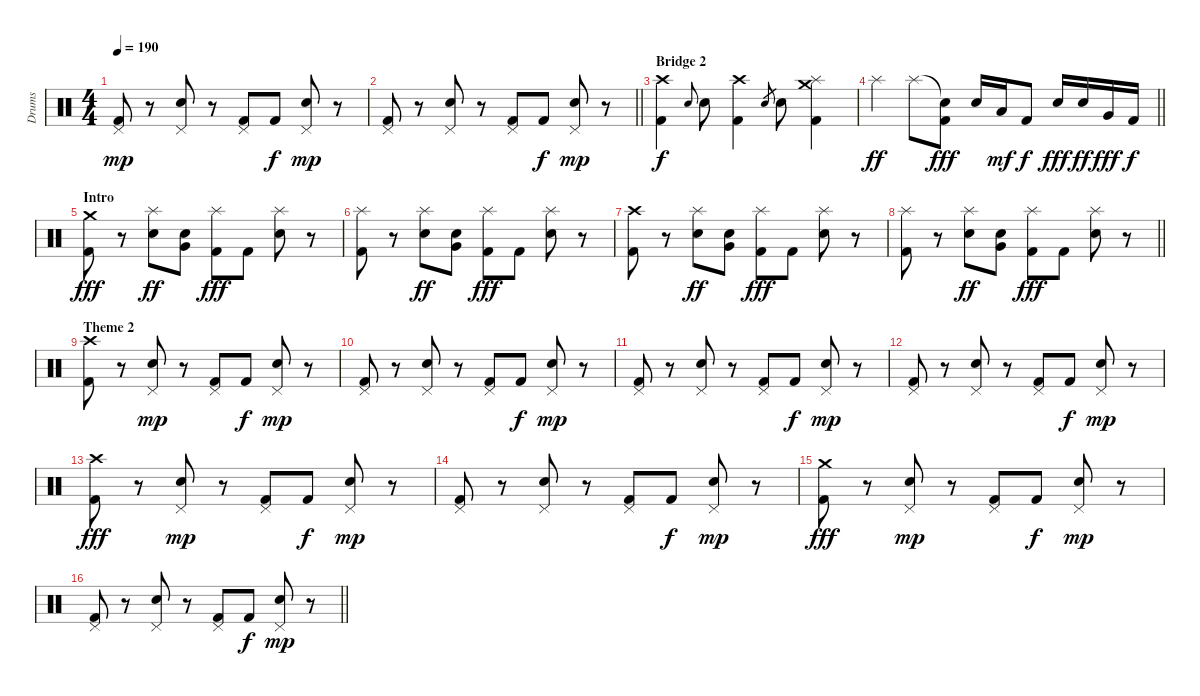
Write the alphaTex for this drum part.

\track ("Drums" "Drums") {instrument percussion}
\staff {score}
\articulation defaults
\ts (4 4)
\tempo 190
\clef neutral
\ks c
("Pedal Hi-Hat (hit)" "Kick (hit) 2").8{dy mp} r.8 ("Pedal Hi-Hat (hit)" "Electric Snare (hit)").8 r.8 ("Pedal Hi-Hat (hit)" "Kick (hit) 2").8 "Kick (hit) 2".8{dy f} ("Pedal Hi-Hat (hit)" "Electric Snare (hit)").8{dy mp} r.8 |
\barLineRight lightlight
("Pedal Hi-Hat (hit)" "Kick (hit) 2").8 r.8 ("Pedal Hi-Hat (hit)" "Electric Snare (hit)").8 r.8 ("Pedal Hi-Hat (hit)" "Kick (hit) 2").8 "Kick (hit) 2".8{dy f} ("Pedal Hi-Hat (hit)" "Electric Snare (hit)").8{dy mp} r.8 |
\section ("" "Bridge 2")
("Crash high (hit)" "Kick (hit) 2").4{dy f} "Electric Snare (hit)".8{gr onbeat} "Electric Snare (hit)".8 ("Crash high (hit)" "Kick (hit) 2").4 "Electric Snare (hit)".8{gr} "Electric Snare (hit)".8 ("Crash medium (hit)" "Splash (hit)" "Kick (hit) 2").4 |
\barLineRight lightlight "Splash (hit)".4{dy ff} "Splash (hit)".8
("Snare (hit)"{t} "Kick (hit) 2").8{dy fff} "Electric Snare (hit)".16 "Low Tom (hit)".16{dy mf} "Kick (hit) 2".8{dy f} "Electric Snare (hit)".16{dy fff} "Electric Snare (hit)".16{dy ff} "Very Low Tom (hit)".16{dy fff} "Kick (hit) 2".16{dy f} |
\section ("" "Intro")
("Crash medium (hit)" "Kick (hit) 2").8{dy fff} r.8 ("Splash (hit)" "Electric Snare (hit)").8{dy ff} ("Electric Snare (hit)" "Very Low Tom (hit)").8 ("Splash (hit)" "Kick (hit) 2").8{dy fff} "Kick (hit) 2".8 ("Splash (hit)" "Electric Snare (hit)").8 r.8 |
("Splash (hit)" "Kick (hit) 2").8 r.8 ("Splash (hit)" "Electric Snare (hit)").8{dy ff} ("Electric Snare (hit)" "Very Low Tom (hit)").8 ("Splash (hit)" "Kick (hit) 2").8{dy fff} "Kick (hit) 2".8 ("Splash (hit)" "Electric Snare (hit)").8 r.8 |
("Crash high (hit)" "Kick (hit) 2").8 r.8 ("Splash (hit)" "Electric Snare (hit)").8{dy ff} ("Electric Snare (hit)" "Very Low Tom (hit)").8 ("Splash (hit)" "Kick (hit) 2").8{dy fff} "Kick (hit) 2".8 ("Splash (hit)" "Electric Snare (hit)").8 r.8 |
\barLineRight lightlight
("Splash (hit)" "Kick (hit) 2").8 r.8 ("Splash (hit)" "Electric Snare (hit)").8{dy ff} ("Electric Snare (hit)" "Very Low Tom (hit)").8 ("Splash (hit)" "Kick (hit) 2").8{dy fff} "Kick (hit) 2".8 ("Splash (hit)" "Electric Snare (hit)").8 r.8 |
\section ("" "Theme 2")
("Crash high (hit)" "Kick (hit) 2").8 r.8 ("Pedal Hi-Hat (hit)" "Electric Snare (hit)").8{dy mp} r.8 ("Pedal Hi-Hat (hit)" "Kick (hit) 2").8 "Kick (hit) 2".8{dy f} ("Pedal Hi-Hat (hit)" "Electric Snare (hit)").8{dy mp} r.8 |
("Pedal Hi-Hat (hit)" "Kick (hit) 2").8 r.8 ("Pedal Hi-Hat (hit)" "Electric Snare (hit)").8 r.8 ("Pedal Hi-Hat (hit)" "Kick (hit) 2").8 "Kick (hit) 2".8{dy f} ("Pedal Hi-Hat (hit)" "Electric Snare (hit)").8{dy mp} r.8 |
("Pedal Hi-Hat (hit)" "Kick (hit) 2").8 r.8 ("Pedal Hi-Hat (hit)" "Electric Snare (hit)").8 r.8 ("Pedal Hi-Hat (hit)" "Kick (hit) 2").8 "Kick (hit) 2".8{dy f} ("Pedal Hi-Hat (hit)" "Electric Snare (hit)").8{dy mp} r.8 |
("Pedal Hi-Hat (hit)" "Kick (hit) 2").8 r.8 ("Pedal Hi-Hat (hit)" "Electric Snare (hit)").8 r.8 ("Pedal Hi-Hat (hit)" "Kick (hit) 2").8 "Kick (hit) 2".8{dy f} ("Pedal Hi-Hat (hit)" "Electric Snare (hit)").8{dy mp} r.8 |
("Crash high (hit)" "Kick (hit) 2").8{dy fff} r.8 ("Pedal Hi-Hat (hit)" "Electric Snare (hit)").8{dy mp} r.8 ("Pedal Hi-Hat (hit)" "Kick (hit) 2").8 "Kick (hit) 2".8{dy f} ("Pedal Hi-Hat (hit)" "Electric Snare (hit)").8{dy mp} r.8 |
("Pedal Hi-Hat (hit)" "Kick (hit) 2").8 r.8 ("Pedal Hi-Hat (hit)" "Electric Snare (hit)").8 r.8 ("Pedal Hi-Hat (hit)" "Kick (hit) 2").8 "Kick (hit) 2".8{dy f} ("Pedal Hi-Hat (hit)" "Electric Snare (hit)").8{dy mp} r.8 |
("Crash medium (hit)" "Kick (hit) 2").8{dy fff} r.8 ("Pedal Hi-Hat (hit)" "Electric Snare (hit)").8{dy mp} r.8 ("Pedal Hi-Hat (hit)" "Kick (hit) 2").8 "Kick (hit) 2".8{dy f} ("Pedal Hi-Hat (hit)" "Electric Snare (hit)").8{dy mp} r.8 |
\barLineRight lightlight
("Pedal Hi-Hat (hit)" "Kick (hit) 2").8 r.8 ("Pedal Hi-Hat (hit)" "Electric Snare (hit)").8 r.8 ("Pedal Hi-Hat (hit)" "Kick (hit) 2").8 "Kick (hit) 2".8{dy f} ("Pedal Hi-Hat (hit)" "Electric Snare (hit)").8{dy mp} r.8
